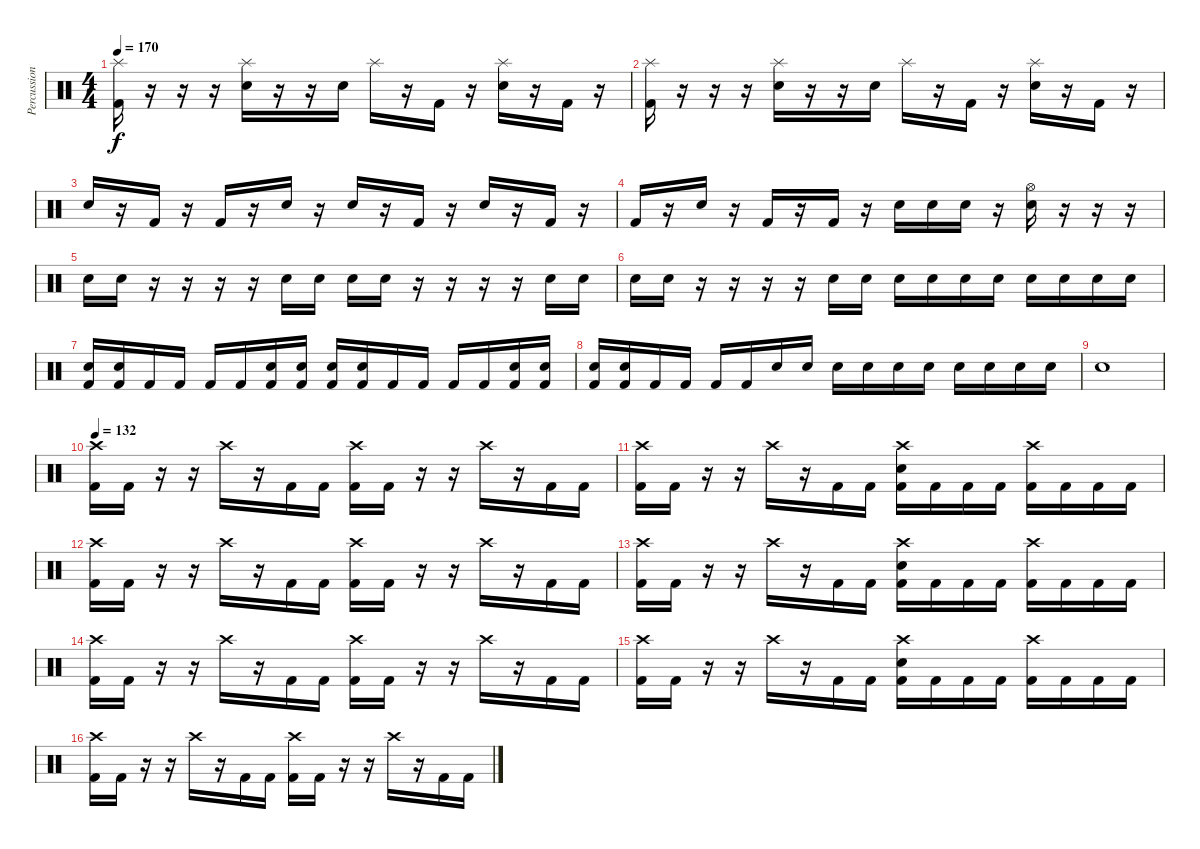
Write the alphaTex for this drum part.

\track ("Percussion" "Percussion") {instrument percussion}
\staff {score}
\articulation defaults
\ts (4 4)
\tempo 170
\clef neutral
\ks c
("Splash (hit)" "Kick (hit) 2").16{dy f} r.16 r.16 r.16 ("Splash (hit)" "Electric Snare (hit)").16 r.16 r.16 "Electric Snare (hit)".16 "Splash (hit)".16 r.16 "Kick (hit) 2".16 r.16 ("Splash (hit)" "Electric Snare (hit)").16 r.16 "Kick (hit) 2".16 r.16 |
("Splash (hit)" "Kick (hit) 2").16 r.16 r.16 r.16 ("Splash (hit)" "Electric Snare (hit)").16 r.16 r.16 "Electric Snare (hit)".16 "Splash (hit)".16 r.16 "Kick (hit) 2".16 r.16 ("Splash (hit)" "Electric Snare (hit)").16 r.16 "Kick (hit) 2".16 r.16 |
"Electric Snare (hit)".16 r.16 "Kick (hit) 2".16 r.16 "Kick (hit) 2".16 r.16 "Electric Snare (hit)".16 r.16 "Electric Snare (hit)".16 r.16 "Kick (hit) 2".16 r.16 "Electric Snare (hit)".16 r.16 "Kick (hit) 2".16 r.16 |
"Kick (hit) 2".16 r.16 "Electric Snare (hit)".16 r.16 "Kick (hit) 2".16 r.16 "Kick (hit) 2".16 r.16 "Electric Snare (hit)".16 "Electric Snare (hit)".16 "Electric Snare (hit)".16 r.16 ("Hi-Hat (open)" "Electric Snare (hit)").16 r.16 r.16 r.16 |
"Electric Snare (hit)".16 "Electric Snare (hit)".16 r.16 r.16 r.16 r.16 "Electric Snare (hit)".16 "Electric Snare (hit)".16 "Electric Snare (hit)".16 "Electric Snare (hit)".16 r.16 r.16 r.16 r.16 "Electric Snare (hit)".16 "Electric Snare (hit)".16 |
"Electric Snare (hit)".16 "Electric Snare (hit)".16 r.16 r.16 r.16 r.16 "Electric Snare (hit)".16 "Electric Snare (hit)".16 "Electric Snare (hit)".16 "Electric Snare (hit)".16 "Electric Snare (hit)".16 "Electric Snare (hit)".16 "Electric Snare (hit)".16 "Electric Snare (hit)".16 "Electric Snare (hit)".16 "Electric Snare (hit)".16 |
("Electric Snare (hit)" "Kick (hit) 2").16 ("Electric Snare (hit)" "Kick (hit) 2").16 "Kick (hit) 2".16 "Kick (hit) 2".16 "Kick (hit) 2".16 "Kick (hit) 2".16 ("Electric Snare (hit)" "Kick (hit) 2").16 ("Electric Snare (hit)" "Kick (hit) 2").16 ("Electric Snare (hit)" "Kick (hit) 2").16 ("Electric Snare (hit)" "Kick (hit) 2").16 "Kick (hit) 2".16 "Kick (hit) 2".16 "Kick (hit) 2".16 "Kick (hit) 2".16 ("Electric Snare (hit)" "Kick (hit) 2").16 ("Electric Snare (hit)" "Kick (hit) 2").16 |
("Electric Snare (hit)" "Kick (hit) 2").16 ("Electric Snare (hit)" "Kick (hit) 2").16 "Kick (hit) 2".16 "Kick (hit) 2".16 "Kick (hit) 2".16 "Kick (hit) 2".16 "Electric Snare (hit)".16 "Electric Snare (hit)".16 "Electric Snare (hit)".16 "Electric Snare (hit)".16 "Electric Snare (hit)".16 "Electric Snare (hit)".16 "Electric Snare (hit)".16 "Electric Snare (hit)".16 "Electric Snare (hit)".16 "Electric Snare (hit)".16 |
"Electric Snare (hit)".1 |
\tempo 132
("Crash high (hit)" "Kick (hit) 2").16 "Kick (hit) 2".16 r.16 r.16 "Crash high (hit)".16 r.16 "Kick (hit) 2".16 "Kick (hit) 2".16 ("Crash high (hit)" "Kick (hit) 2").16 "Kick (hit) 2".16 r.16 r.16 "Crash high (hit)".16 r.16 "Kick (hit) 2".16 "Kick (hit) 2".16 |
("Crash high (hit)" "Kick (hit) 2").16 "Kick (hit) 2".16 r.16 r.16 "Crash high (hit)".16 r.16 "Kick (hit) 2".16 "Kick (hit) 2".16 ("Crash high (hit)" "Electric Snare (hit)" "Kick (hit) 2").16 "Kick (hit) 2".16 "Kick (hit) 2".16 "Kick (hit) 2".16 ("Crash high (hit)" "Kick (hit) 2").16 "Kick (hit) 2".16 "Kick (hit) 2".16 "Kick (hit) 2".16 |
("Crash high (hit)" "Kick (hit) 2").16 "Kick (hit) 2".16 r.16 r.16 "Crash high (hit)".16 r.16 "Kick (hit) 2".16 "Kick (hit) 2".16 ("Crash high (hit)" "Kick (hit) 2").16 "Kick (hit) 2".16 r.16 r.16 "Crash high (hit)".16 r.16 "Kick (hit) 2".16 "Kick (hit) 2".16 |
("Crash high (hit)" "Kick (hit) 2").16 "Kick (hit) 2".16 r.16 r.16 "Crash high (hit)".16 r.16 "Kick (hit) 2".16 "Kick (hit) 2".16 ("Crash high (hit)" "Electric Snare (hit)" "Kick (hit) 2").16 "Kick (hit) 2".16 "Kick (hit) 2".16 "Kick (hit) 2".16 ("Crash high (hit)" "Kick (hit) 2").16 "Kick (hit) 2".16 "Kick (hit) 2".16 "Kick (hit) 2".16 |
("Crash high (hit)" "Kick (hit) 2").16 "Kick (hit) 2".16 r.16 r.16 "Crash high (hit)".16 r.16 "Kick (hit) 2".16 "Kick (hit) 2".16 ("Crash high (hit)" "Kick (hit) 2").16 "Kick (hit) 2".16 r.16 r.16 "Crash high (hit)".16 r.16 "Kick (hit) 2".16 "Kick (hit) 2".16 |
("Crash high (hit)" "Kick (hit) 2").16 "Kick (hit) 2".16 r.16 r.16 "Crash high (hit)".16 r.16 "Kick (hit) 2".16 "Kick (hit) 2".16 ("Crash high (hit)" "Electric Snare (hit)" "Kick (hit) 2").16 "Kick (hit) 2".16 "Kick (hit) 2".16 "Kick (hit) 2".16 ("Crash high (hit)" "Kick (hit) 2").16 "Kick (hit) 2".16 "Kick (hit) 2".16 "Kick (hit) 2".16 |
("Crash high (hit)" "Kick (hit) 2").16 "Kick (hit) 2".16 r.16 r.16 "Crash high (hit)".16 r.16 "Kick (hit) 2".16 "Kick (hit) 2".16 ("Crash high (hit)" "Kick (hit) 2").16 "Kick (hit) 2".16 r.16 r.16 "Crash high (hit)".16 r.16 "Kick (hit) 2".16 "Kick (hit) 2".16
